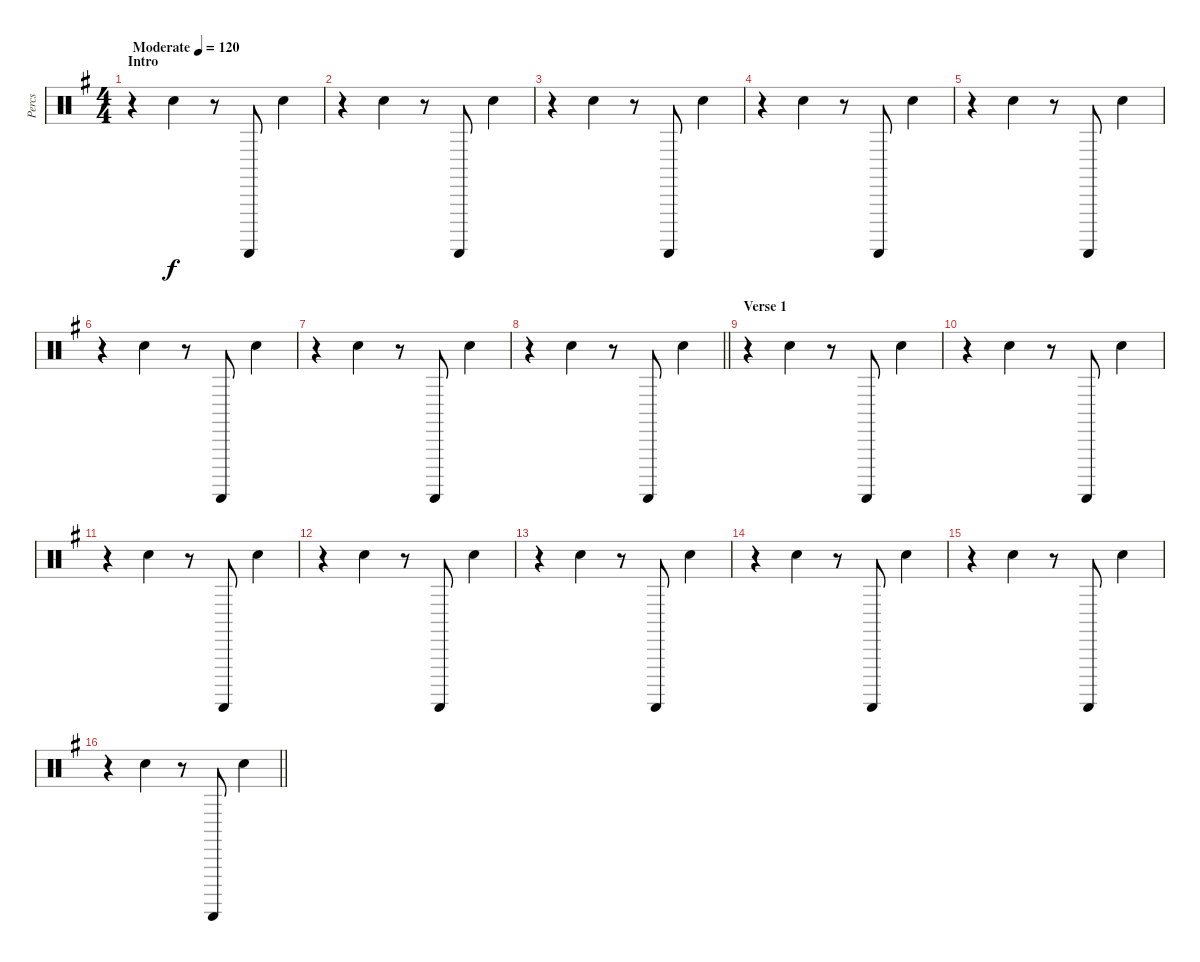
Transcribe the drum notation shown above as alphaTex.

\track ("Percs" "Percs") {instrument percussion}
\staff {score}
\articulation defaults
\ts (4 4)
\section ("" "Intro")
\tempo (120 "Moderate")
\clef neutral
\ks g
r.4{dy f} "Hand Clap (hit)".4 r.8 "Guiro (scrap-return)".8 "Hand Clap (hit)".4 |
r.4 "Hand Clap (hit)".4 r.8 "Guiro (scrap-return)".8 "Hand Clap (hit)".4 |
r.4 "Hand Clap (hit)".4 r.8 "Guiro (scrap-return)".8 "Hand Clap (hit)".4 |
r.4 "Hand Clap (hit)".4 r.8 "Guiro (scrap-return)".8 "Hand Clap (hit)".4 |
r.4 "Hand Clap (hit)".4 r.8 "Guiro (scrap-return)".8 "Hand Clap (hit)".4 |
r.4 "Hand Clap (hit)".4 r.8 "Guiro (scrap-return)".8 "Hand Clap (hit)".4 |
r.4 "Hand Clap (hit)".4 r.8 "Guiro (scrap-return)".8 "Hand Clap (hit)".4 |
\barLineRight lightlight
r.4 "Hand Clap (hit)".4 r.8 "Guiro (scrap-return)".8 "Hand Clap (hit)".4 |
\section ("" "Verse 1")
r.4 "Hand Clap (hit)".4 r.8 "Guiro (scrap-return)".8 "Hand Clap (hit)".4 |
r.4 "Hand Clap (hit)".4 r.8 "Guiro (scrap-return)".8 "Hand Clap (hit)".4 |
r.4 "Hand Clap (hit)".4 r.8 "Guiro (scrap-return)".8 "Hand Clap (hit)".4 |
r.4 "Hand Clap (hit)".4 r.8 "Guiro (scrap-return)".8 "Hand Clap (hit)".4 |
r.4 "Hand Clap (hit)".4 r.8 "Guiro (scrap-return)".8 "Hand Clap (hit)".4 |
r.4 "Hand Clap (hit)".4 r.8 "Guiro (scrap-return)".8 "Hand Clap (hit)".4 |
r.4 "Hand Clap (hit)".4 r.8 "Guiro (scrap-return)".8 "Hand Clap (hit)".4 |
\barLineRight lightlight
r.4 "Hand Clap (hit)".4 r.8 "Guiro (scrap-return)".8 "Hand Clap (hit)".4
